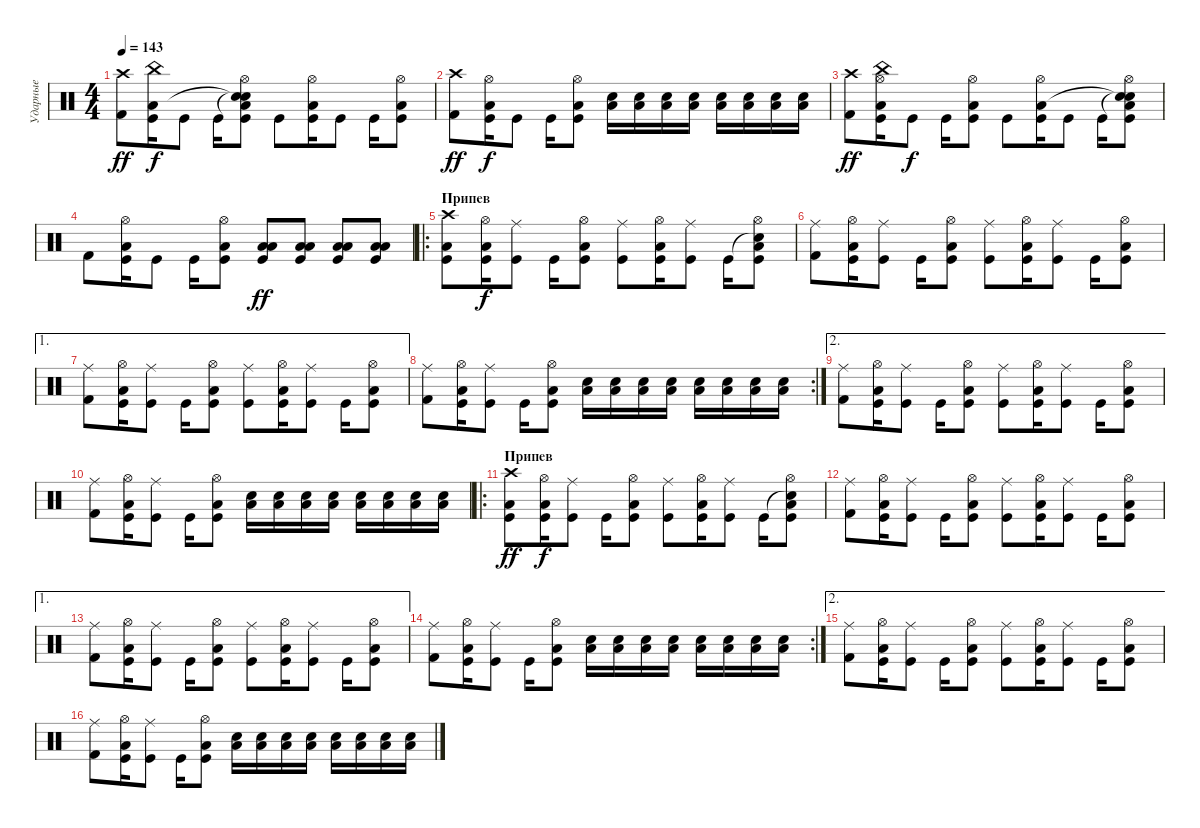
\track ("Ударные" "Ударные") {instrument percussion}
\staff {score}
\articulation defaults
\ts (4 4)
\tempo 143
\clef neutral
\ks c
("Crash high (hit)" "Kick (hit) 2").8{dy ff balance 14} ("China (hit)" "Low Tom (hit)" "Kick (hit)").16{dy f} "Kick (hit)".8{balance 8} "Kick (hit)".16 ("Snare (hit)"{t} "Snare (hit)"{t} "Hi-Hat (open)" "Low Tom (hit)" "Kick (hit)").8 "Kick (hit)".8 ("Hi-Hat (open)" "Low Tom (hit)" "Kick (hit)").16 "Kick (hit)".8 "Kick (hit)".16 ("Hi-Hat (open)" "Low Tom (hit)" "Kick (hit)").8 |
("Crash high (hit)" "Kick (hit) 2").8{dy ff balance 14} ("Hi-Hat (open)" "Low Tom (hit)" "Kick (hit)").16{dy f} "Kick (hit)".8{balance 8} "Kick (hit)".16 ("Hi-Hat (open)" "Low Tom (hit)" "Kick (hit)").8 ("Snare (hit) 2" "Low Tom (hit)").16 ("Snare (hit) 2" "Low Tom (hit)").16 ("Snare (hit) 2" "Low Tom (hit)").16 ("Snare (hit) 2" "Low Tom (hit)").16 ("Snare (hit) 2" "Low Tom (hit)").16 ("Snare (hit) 2" "Low Tom (hit)").16 ("Snare (hit) 2" "Low Tom (hit)").16 ("Snare (hit) 2" "Low Tom (hit)").16 |
\section ("" " ")
("Crash high (hit)" "Kick (hit) 2").8{dy ff balance 14} ("China (hit)" "Hi-Hat (open)" "Low Tom (hit)" "Kick (hit)").16 "Kick (hit)".8{dy f balance 8} "Kick (hit)".16 ("Hi-Hat (open)" "Low Tom (hit)" "Kick (hit)").8 "Kick (hit)".8 ("Hi-Hat (open)" "Low Tom (hit)" "Kick (hit)").16 "Kick (hit)".8 "Kick (hit)".16 ("Snare (hit)"{t} "Snare (hit)"{t} "Hi-Hat (open)" "Low Tom (hit)" "Kick (hit)").8 |
"Kick (hit) 2".8 ("Hi-Hat (open)" "Low Tom (hit)" "Kick (hit)").16 "Kick (hit)".8 "Kick (hit)".16 ("Hi-Hat (open)" "Low Tom (hit)" "Kick (hit)").8 ("Low Floor Tom (hit)" "Low Tom (hit)" "Kick (hit)").8{dy ff} ("Low Floor Tom (hit)" "Low Tom (hit)" "Kick (hit)").8 ("Low Floor Tom (hit)" "Low Tom (hit)" "Kick (hit)").8 ("Low Floor Tom (hit)" "Low Tom (hit)" "Kick (hit)").8 |
\ro
\section ("" "Припев")
("Crash high (hit)" "Low Floor Tom (hit)" "Kick (hit)").8{balance 14} ("Hi-Hat (open)" "Low Tom (hit)" "Kick (hit)").16{dy f} ("Ride (middle)" "Kick (hit)").8{balance 8} "Kick (hit)".16 ("Hi-Hat (open)" "Low Tom (hit)" "Kick (hit)").8 ("Ride (middle)" "Kick (hit)").8 ("Hi-Hat (open)" "Low Tom (hit)" "Kick (hit)").16 ("Ride (middle)" "Kick (hit)").8 "Kick (hit)".16 ("Snare (hit)"{t} "Hi-Hat (open)" "Low Tom (hit)" "Kick (hit)").8 |
("Ride (middle)" "Kick (hit) 2").8 ("Hi-Hat (open)" "Low Tom (hit)" "Kick (hit)").16 ("Ride (middle)" "Kick (hit)").8 "Kick (hit)".16 ("Hi-Hat (open)" "Low Tom (hit)" "Kick (hit)").8 ("Ride (middle)" "Kick (hit)").8 ("Hi-Hat (open)" "Low Tom (hit)" "Kick (hit)").16 ("Ride (middle)" "Kick (hit)").8 "Kick (hit)".16 ("Hi-Hat (open)" "Low Tom (hit)" "Kick (hit)").8 |
\ae 1
("Ride (middle)" "Kick (hit) 2").8 ("Hi-Hat (open)" "Low Tom (hit)" "Kick (hit)").16 ("Ride (middle)" "Kick (hit)").8 "Kick (hit)".16 ("Hi-Hat (open)" "Low Tom (hit)" "Kick (hit)").8 ("Ride (middle)" "Kick (hit)").8 ("Hi-Hat (open)" "Low Tom (hit)" "Kick (hit)").16 ("Ride (middle)" "Kick (hit)").8 "Kick (hit)".16 ("Hi-Hat (open)" "Low Tom (hit)" "Kick (hit)").8 |
\rc 2
("Ride (middle)" "Kick (hit) 2").8 ("Hi-Hat (open)" "Low Tom (hit)" "Kick (hit)").16 ("Ride (middle)" "Kick (hit)").8 "Kick (hit)".16 ("Hi-Hat (open)" "Low Tom (hit)" "Kick (hit)").8 ("Snare (hit) 2" "Low Tom (hit)").16 ("Snare (hit) 2" "Low Tom (hit)").16 ("Snare (hit) 2" "Low Tom (hit)").16 ("Snare (hit) 2" "Low Tom (hit)").16 ("Snare (hit) 2" "Low Tom (hit)").16 ("Snare (hit) 2" "Low Tom (hit)").16 ("Snare (hit) 2" "Low Tom (hit)").16 ("Snare (hit) 2" "Low Tom (hit)").16 |
\ae 2
("Ride (middle)" "Kick (hit) 2").8 ("Hi-Hat (open)" "Low Tom (hit)" "Kick (hit)").16 ("Ride (middle)" "Kick (hit)").8 "Kick (hit)".16 ("Hi-Hat (open)" "Low Tom (hit)" "Kick (hit)").8 ("Ride (middle)" "Kick (hit)").8 ("Hi-Hat (open)" "Low Tom (hit)" "Kick (hit)").16 ("Ride (middle)" "Kick (hit)").8 "Kick (hit)".16 ("Hi-Hat (open)" "Low Tom (hit)" "Kick (hit)").8 |
("Ride (middle)" "Kick (hit) 2").8 ("Hi-Hat (open)" "Low Tom (hit)" "Kick (hit)").16 ("Ride (middle)" "Kick (hit)").8 "Kick (hit)".16 ("Hi-Hat (open)" "Low Tom (hit)" "Kick (hit)").8 ("Snare (hit) 2" "Low Tom (hit)").16 ("Snare (hit) 2" "Low Tom (hit)").16 ("Snare (hit) 2" "Low Tom (hit)").16 ("Snare (hit) 2" "Low Tom (hit)").16 ("Snare (hit) 2" "Low Tom (hit)").16 ("Snare (hit) 2" "Low Tom (hit)").16 ("Snare (hit) 2" "Low Tom (hit)").16 ("Snare (hit) 2" "Low Tom (hit)").16 |
\ro
\section ("" "Припев")
("Crash high (hit)" "Low Floor Tom (hit)" "Kick (hit)").8{dy ff balance 14} ("Hi-Hat (open)" "Low Tom (hit)" "Kick (hit)").16{dy f} ("Ride (middle)" "Kick (hit)").8{balance 8} "Kick (hit)".16 ("Hi-Hat (open)" "Low Tom (hit)" "Kick (hit)").8 ("Ride (middle)" "Kick (hit)").8 ("Hi-Hat (open)" "Low Tom (hit)" "Kick (hit)").16 ("Ride (middle)" "Kick (hit)").8 "Kick (hit)".16 ("Snare (hit)"{t} "Hi-Hat (open)" "Low Tom (hit)" "Kick (hit)").8 |
("Ride (middle)" "Kick (hit) 2").8 ("Hi-Hat (open)" "Low Tom (hit)" "Kick (hit)").16 ("Ride (middle)" "Kick (hit)").8 "Kick (hit)".16 ("Hi-Hat (open)" "Low Tom (hit)" "Kick (hit)").8 ("Ride (middle)" "Kick (hit)").8 ("Hi-Hat (open)" "Low Tom (hit)" "Kick (hit)").16 ("Ride (middle)" "Kick (hit)").8 "Kick (hit)".16 ("Hi-Hat (open)" "Low Tom (hit)" "Kick (hit)").8 |
\ae 1
("Ride (middle)" "Kick (hit) 2").8 ("Hi-Hat (open)" "Low Tom (hit)" "Kick (hit)").16 ("Ride (middle)" "Kick (hit)").8 "Kick (hit)".16 ("Hi-Hat (open)" "Low Tom (hit)" "Kick (hit)").8 ("Ride (middle)" "Kick (hit)").8 ("Hi-Hat (open)" "Low Tom (hit)" "Kick (hit)").16 ("Ride (middle)" "Kick (hit)").8 "Kick (hit)".16 ("Hi-Hat (open)" "Low Tom (hit)" "Kick (hit)").8 |
\rc 2
("Ride (middle)" "Kick (hit) 2").8 ("Hi-Hat (open)" "Low Tom (hit)" "Kick (hit)").16 ("Ride (middle)" "Kick (hit)").8 "Kick (hit)".16 ("Hi-Hat (open)" "Low Tom (hit)" "Kick (hit)").8 ("Snare (hit) 2" "Low Tom (hit)").16 ("Snare (hit) 2" "Low Tom (hit)").16 ("Snare (hit) 2" "Low Tom (hit)").16 ("Snare (hit) 2" "Low Tom (hit)").16 ("Snare (hit) 2" "Low Tom (hit)").16 ("Snare (hit) 2" "Low Tom (hit)").16 ("Snare (hit) 2" "Low Tom (hit)").16 ("Snare (hit) 2" "Low Tom (hit)").16 |
\ae 2
("Ride (middle)" "Kick (hit) 2").8 ("Hi-Hat (open)" "Low Tom (hit)" "Kick (hit)").16 ("Ride (middle)" "Kick (hit)").8 "Kick (hit)".16 ("Hi-Hat (open)" "Low Tom (hit)" "Kick (hit)").8 ("Ride (middle)" "Kick (hit)").8 ("Hi-Hat (open)" "Low Tom (hit)" "Kick (hit)").16 ("Ride (middle)" "Kick (hit)").8 "Kick (hit)".16 ("Hi-Hat (open)" "Low Tom (hit)" "Kick (hit)").8 |
("Ride (middle)" "Kick (hit) 2").8 ("Hi-Hat (open)" "Low Tom (hit)" "Kick (hit)").16 ("Ride (middle)" "Kick (hit)").8 "Kick (hit)".16 ("Hi-Hat (open)" "Low Tom (hit)" "Kick (hit)").8 ("Snare (hit) 2" "Low Tom (hit)").16 ("Snare (hit) 2" "Low Tom (hit)").16 ("Snare (hit) 2" "Low Tom (hit)").16 ("Snare (hit) 2" "Low Tom (hit)").16 ("Snare (hit) 2" "Low Tom (hit)").16 ("Snare (hit) 2" "Low Tom (hit)").16 ("Snare (hit) 2" "Low Tom (hit)").16 ("Snare (hit) 2" "Low Tom (hit)").16
